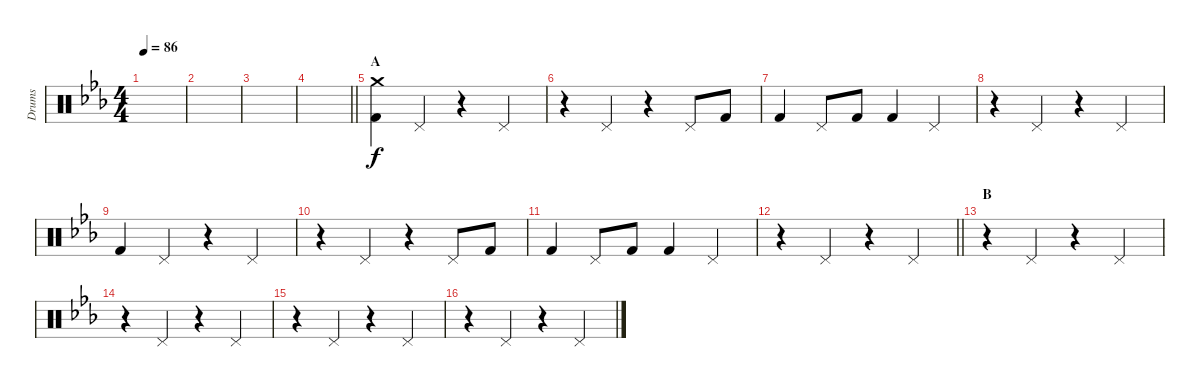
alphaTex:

\track ("Drums" "Drums") {instrument percussion}
\staff {score}
\articulation defaults
\ts (4 4)
\tempo 86
\clef neutral
\ks eb
|
|
|
\barLineRight lightlight
|
\section ("" "A")
("Crash medium (hit)" "Kick (hit) 2").4 "Pedal Hi-Hat (hit)".4{dy f} r.4 "Pedal Hi-Hat (hit)".4 |
r.4 "Pedal Hi-Hat (hit)".4 r.4 "Pedal Hi-Hat (hit)".8 "Kick (hit) 2".8 |
"Kick (hit) 2".4 "Pedal Hi-Hat (hit)".8 "Kick (hit) 2".8 "Kick (hit) 2".4 "Pedal Hi-Hat (hit)".4 |
r.4 "Pedal Hi-Hat (hit)".4 r.4 "Pedal Hi-Hat (hit)".4 |
"Kick (hit) 2".4 "Pedal Hi-Hat (hit)".4 r.4 "Pedal Hi-Hat (hit)".4 |
r.4 "Pedal Hi-Hat (hit)".4 r.4 "Pedal Hi-Hat (hit)".8 "Kick (hit) 2".8 |
"Kick (hit) 2".4 "Pedal Hi-Hat (hit)".8 "Kick (hit) 2".8 "Kick (hit) 2".4 "Pedal Hi-Hat (hit)".4 |
\barLineRight lightlight
r.4 "Pedal Hi-Hat (hit)".4 r.4 "Pedal Hi-Hat (hit)".4 |
\section ("" "B")
r.4 "Pedal Hi-Hat (hit)".4 r.4 "Pedal Hi-Hat (hit)".4 |
r.4 "Pedal Hi-Hat (hit)".4 r.4 "Pedal Hi-Hat (hit)".4 |
r.4 "Pedal Hi-Hat (hit)".4 r.4 "Pedal Hi-Hat (hit)".4 |
r.4 "Pedal Hi-Hat (hit)".4 r.4 "Pedal Hi-Hat (hit)".4
